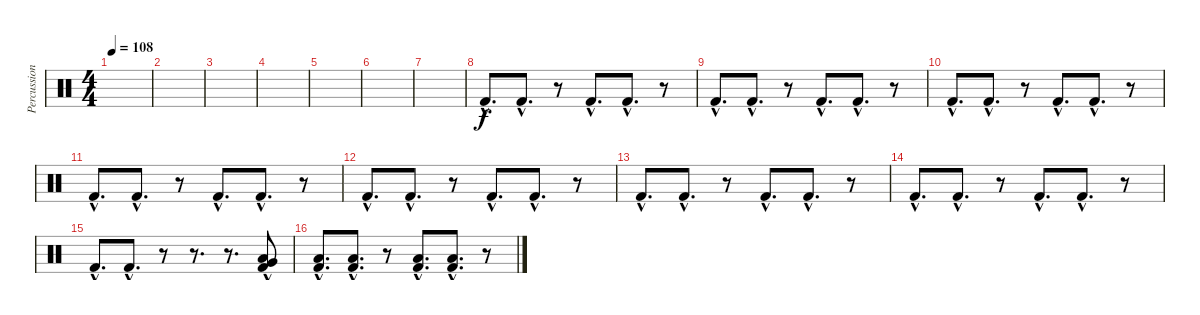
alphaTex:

\track ("Percussioni" "Percussion") {instrument percussion}
\staff {score}
\articulation defaults
\ts (4 4)
\tempo 108
\clef neutral
\ks c
|
|
|
|
|
|
|
"Kick (hit) 2"{hac}.8{d} "Kick (hit) 2"{hac}.8{d} r.8 "Kick (hit) 2"{hac}.8{d} "Kick (hit) 2"{hac}.8{d} r.8 |
"Kick (hit) 2"{hac}.8{d} "Kick (hit) 2"{hac}.8{d} r.8 "Kick (hit) 2"{hac}.8{d} "Kick (hit) 2"{hac}.8{d} r.8 |
"Kick (hit) 2"{hac}.8{d} "Kick (hit) 2"{hac}.8{d} r.8 "Kick (hit) 2"{hac}.8{d} "Kick (hit) 2"{hac}.8{d} r.8 |
"Kick (hit) 2"{hac}.8{d} "Kick (hit) 2"{hac}.8{d} r.8 "Kick (hit) 2"{hac}.8{d} "Kick (hit) 2"{hac}.8{d} r.8 |
"Kick (hit) 2"{hac}.8{d} "Kick (hit) 2"{hac}.8{d} r.8 "Kick (hit) 2"{hac}.8{d} "Kick (hit) 2"{hac}.8{d} r.8 |
"Kick (hit) 2"{hac}.8{d} "Kick (hit) 2"{hac}.8{d} r.8 "Kick (hit) 2"{hac}.8{d} "Kick (hit) 2"{hac}.8{d} r.8 |
"Kick (hit) 2"{hac}.8{d} "Kick (hit) 2"{hac}.8{d} r.8 "Kick (hit) 2"{hac}.8{d} "Kick (hit) 2"{hac}.8{d} r.8 |
"Kick (hit) 2"{hac}.8{d} "Kick (hit) 2"{hac}.8{d} r.8 r.8{d} r.8{d} ("Very Low Tom (hit)" "Low Floor Tom (hit)"{hac} "Kick (hit) 2"{hac}).8 |
("Low Floor Tom (hit)"{hac} "Kick (hit) 2"{hac}).8{d} ("Low Floor Tom (hit)" "Kick (hit) 2"{hac}).8{d} r.8 ("Low Floor Tom (hit)" "Kick (hit) 2"{hac}).8{d} ("Low Floor Tom (hit)" "Kick (hit) 2"{hac}).8{d} r.8
